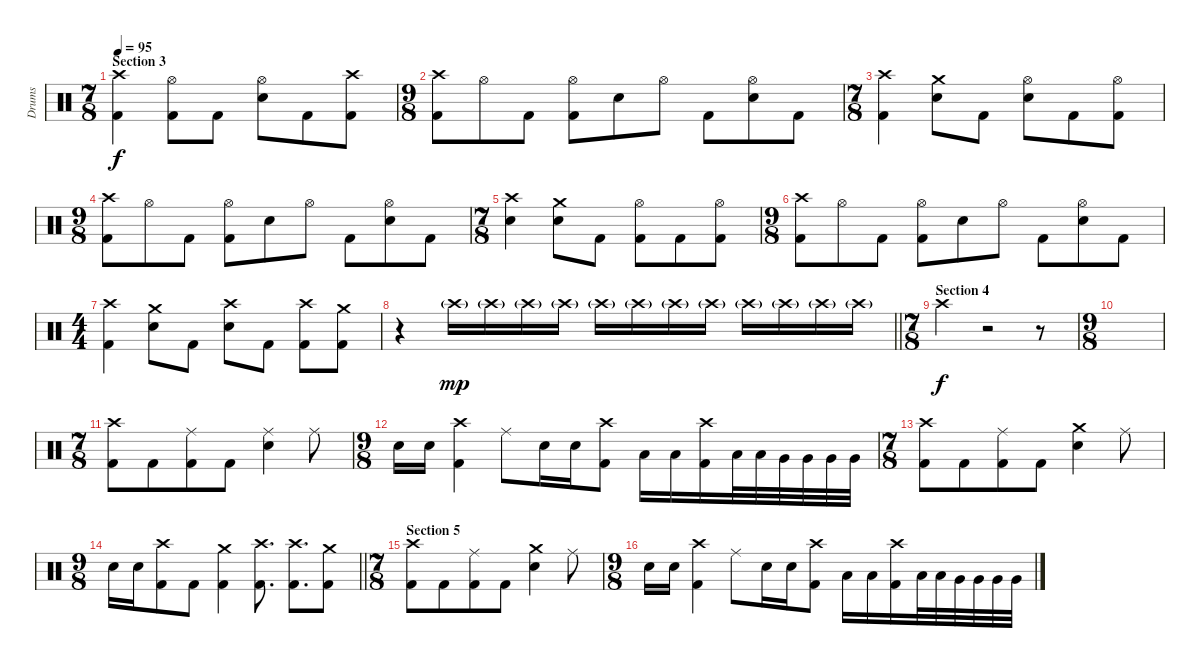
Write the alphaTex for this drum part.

\track ("Drums" "Drums") {instrument percussion}
\staff {score}
\articulation defaults
\ts (7 8)
\section ("" "Section 3")
\tempo 95
\clef neutral
\ks c
("Crash high (hit)" "Kick (hit) 2").4{dy f} ("Hi-Hat (open)" "Kick (hit) 2").8 "Kick (hit) 2".8 ("Hi-Hat (open)" "Snare (hit) 2").8 "Kick (hit) 2".8 ("Crash high (hit)" "Kick (hit) 2").8 |
\ts (9 8)
("Crash high (hit)" "Kick (hit) 2").8 "Hi-Hat (open)".8 "Kick (hit) 2".8 ("Hi-Hat (open)" "Kick (hit) 2").8 "Snare (hit) 2".8 "Hi-Hat (open)".8 "Kick (hit) 2".8 ("Hi-Hat (open)" "Snare (hit) 2").8 "Kick (hit) 2".8 |
\ts (7 8)
("Crash high (hit)" "Kick (hit) 2").4 ("Crash medium (hit)" "Snare (hit) 2").8 "Kick (hit) 2".8 ("Hi-Hat (open)" "Snare (hit) 2").8 "Kick (hit) 2".8 ("Hi-Hat (open)" "Kick (hit) 2").8 |
\ts (9 8)
("Crash high (hit)" "Kick (hit) 2").8 "Hi-Hat (open)".8 "Kick (hit) 2".8 ("Hi-Hat (open)" "Kick (hit) 2").8 "Snare (hit) 2".8 "Hi-Hat (open)".8 "Kick (hit) 2".8 ("Hi-Hat (open)" "Snare (hit) 2").8 "Kick (hit) 2".8 |
\ts (7 8)
("Crash high (hit)" "Snare (hit) 2").4 ("Crash medium (hit)" "Snare (hit) 2").8 "Kick (hit) 2".8 ("Hi-Hat (open)" "Kick (hit) 2").8 "Kick (hit) 2".8 ("Hi-Hat (open)" "Kick (hit) 2").8 |
\ts (9 8)
("Crash high (hit)" "Kick (hit) 2").8 "Hi-Hat (open)".8 "Kick (hit) 2".8 ("Hi-Hat (open)" "Kick (hit) 2").8 "Snare (hit) 2".8 "Hi-Hat (open)".8 "Kick (hit) 2".8 ("Hi-Hat (open)" "Snare (hit) 2").8 "Kick (hit) 2".8 |
\ts (4 4)
("Crash high (hit)" "Kick (hit) 2").4 ("Crash medium (hit)" "Snare (hit) 2").8 "Kick (hit) 2".8 ("Crash high (hit)" "Snare (hit) 2").8 "Kick (hit) 2".8 ("Crash high (hit)" "Kick (hit) 2").8 ("Crash medium (hit)" "Kick (hit) 2").8 |
\barLineRight lightlight
r.4 "Crash high (hit)"{g}.16{dy mp} "Crash high (hit)"{g}.16 "Crash high (hit)"{g}.16 "Crash high (hit)"{g}.16 "Crash high (hit)"{g}.16 "Crash high (hit)"{g}.16 "Crash high (hit)"{g}.16 "Crash high (hit)"{g}.16 "Crash high (hit)"{g}.16 "Crash high (hit)"{g}.16 "Crash high (hit)"{g}.16 "Crash high (hit)"{g}.16 |
\ts (7 8)
\section ("" "Section 4")
"Crash high (hit)".4{dy f} r.2 r.8 |
\ts (9 8)
|
\ts (7 8)
("Crash high (hit)" "Kick (hit) 2").8 "Kick (hit) 2".8 ("Ride (middle)" "Kick (hit) 2").8 "Kick (hit) 2".8 ("Ride (middle)" "Snare (hit) 2").4 "Ride (middle)".8 |
\ts (9 8)
"Snare (hit) 2".16 "Snare (hit) 2".16 ("Crash high (hit)" "Kick (hit) 2").4 "Ride (middle)".8 "Snare (hit) 2".16 "Snare (hit) 2".16 ("Crash high (hit)" "Kick (hit) 2").8 "Low Tom (hit)".16 "Low Tom (hit)".16 ("Crash high (hit)" "Kick (hit) 2").16 "Low Tom (hit)".32 "Low Tom (hit)".32 "Very Low Tom (hit)".32 "Very Low Tom (hit)".32 "Very Low Tom (hit)".32 "Very Low Tom (hit)".32 |
\ts (7 8)
("Crash high (hit)" "Kick (hit) 2").8 "Kick (hit) 2".8 ("Ride (middle)" "Kick (hit) 2").8 "Kick (hit) 2".8 ("Crash medium (hit)" "Snare (hit) 2").4 "Ride (middle)".8 |
\ts (9 8)
\barLineRight lightlight "Snare (hit) 2".16 "Snare (hit) 2".16
("Crash high (hit)" "Kick (hit) 2").8 "Kick (hit) 2".8 ("Crash medium (hit)" "Kick (hit) 2").4 ("Crash high (hit)" "Kick (hit) 2").8{d} ("Crash high (hit)" "Kick (hit) 2").8{d} ("Crash medium (hit)" "Kick (hit) 2").8 |
\ts (7 8)
\section ("" "Section 5")
("Crash high (hit)" "Kick (hit) 2").8 "Kick (hit) 2".8 ("Ride (middle)" "Kick (hit) 2").8 "Kick (hit) 2".8 ("Crash medium (hit)" "Snare (hit) 2").4 "Ride (middle)".8 |
\ts (9 8)
"Snare (hit) 2".16 "Snare (hit) 2".16 ("Crash high (hit)" "Kick (hit) 2").4 "Ride (middle)".8 "Snare (hit) 2".16 "Snare (hit) 2".16 ("Crash high (hit)" "Kick (hit) 2").8 "Low Tom (hit)".16 "Low Tom (hit)".16 ("Crash high (hit)" "Kick (hit) 2").16 "Low Tom (hit)".32 "Low Tom (hit)".32 "Very Low Tom (hit)".32 "Very Low Tom (hit)".32 "Very Low Tom (hit)".32 "Very Low Tom (hit)".32
